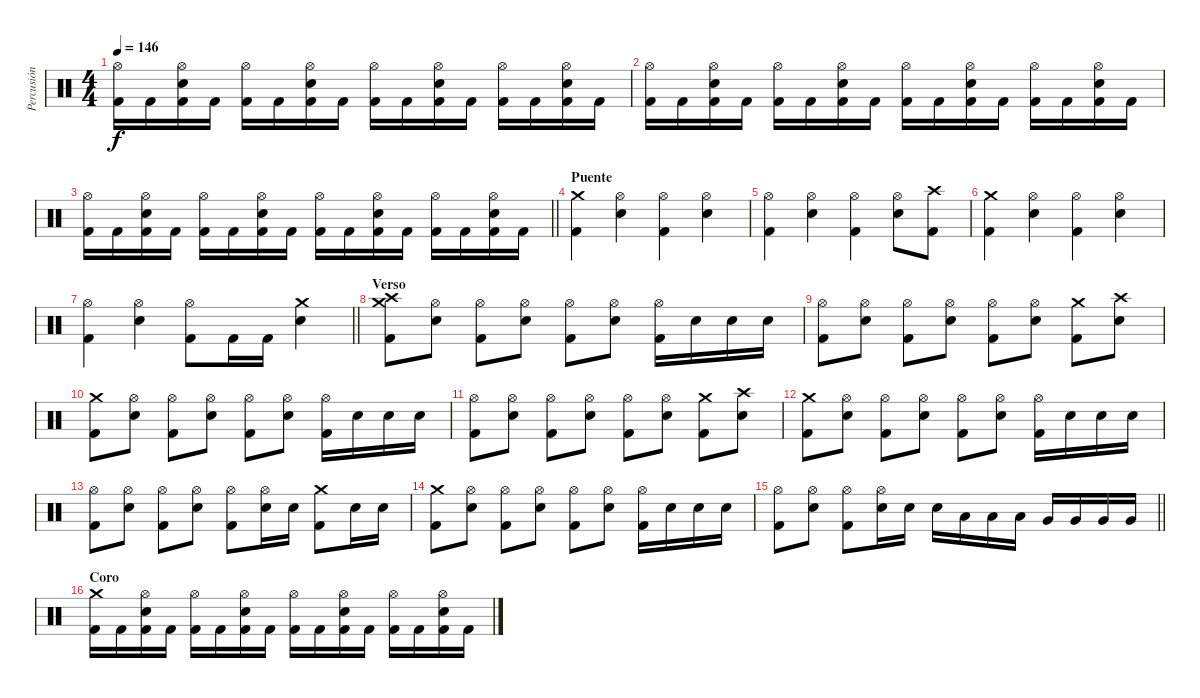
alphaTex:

\track ("Percusión" "Percusión") {instrument percussion}
\staff {score}
\articulation defaults
\ts (4 4)
\tempo 146
\clef neutral
\ks c
("Hi-Hat (open)" "Kick (hit) 2").16{dy f} "Kick (hit) 2".16 ("Hi-Hat (open)" "Snare (hit) 2" "Kick (hit) 2").16 "Kick (hit) 2".16 ("Hi-Hat (open)" "Kick (hit) 2").16 "Kick (hit) 2".16 ("Hi-Hat (open)" "Snare (hit) 2" "Kick (hit) 2").16 "Kick (hit) 2".16 ("Hi-Hat (open)" "Kick (hit) 2").16 "Kick (hit) 2".16 ("Hi-Hat (open)" "Snare (hit) 2" "Kick (hit) 2").16 "Kick (hit) 2".16 ("Hi-Hat (open)" "Kick (hit) 2").16 "Kick (hit) 2".16 ("Hi-Hat (open)" "Snare (hit) 2" "Kick (hit) 2").16 "Kick (hit) 2".16 |
("Hi-Hat (open)" "Kick (hit) 2").16 "Kick (hit) 2".16 ("Hi-Hat (open)" "Snare (hit) 2" "Kick (hit) 2").16 "Kick (hit) 2".16 ("Hi-Hat (open)" "Kick (hit) 2").16 "Kick (hit) 2".16 ("Hi-Hat (open)" "Snare (hit) 2" "Kick (hit) 2").16 "Kick (hit) 2".16 ("Hi-Hat (open)" "Kick (hit) 2").16 "Kick (hit) 2".16 ("Hi-Hat (open)" "Snare (hit) 2" "Kick (hit) 2").16 "Kick (hit) 2".16 ("Hi-Hat (open)" "Kick (hit) 2").16 "Kick (hit) 2".16 ("Hi-Hat (open)" "Snare (hit) 2" "Kick (hit) 2").16 "Kick (hit) 2".16 |
\barLineRight lightlight
("Hi-Hat (open)" "Kick (hit) 2").16 "Kick (hit) 2".16 ("Hi-Hat (open)" "Snare (hit) 2" "Kick (hit) 2").16 "Kick (hit) 2".16 ("Hi-Hat (open)" "Kick (hit) 2").16 "Kick (hit) 2".16 ("Hi-Hat (open)" "Snare (hit) 2" "Kick (hit) 2").16 "Kick (hit) 2".16 ("Hi-Hat (open)" "Kick (hit) 2").16 "Kick (hit) 2".16 ("Hi-Hat (open)" "Snare (hit) 2" "Kick (hit) 2").16 "Kick (hit) 2".16 ("Hi-Hat (open)" "Kick (hit) 2").16 "Kick (hit) 2".16 ("Hi-Hat (open)" "Snare (hit) 2" "Kick (hit) 2").16 "Kick (hit) 2".16 |
\section ("" "Puente")
("Crash medium (hit)" "Kick (hit) 2").4 ("Hi-Hat (open)" "Snare (hit) 2").4 ("Hi-Hat (open)" "Kick (hit) 2").4 ("Hi-Hat (open)" "Snare (hit) 2").4 |
("Hi-Hat (open)" "Kick (hit) 2").4 ("Hi-Hat (open)" "Snare (hit) 2").4 ("Hi-Hat (open)" "Kick (hit) 2").4 ("Hi-Hat (open)" "Snare (hit) 2").8 ("Crash high (hit)" "Kick (hit) 2").8 |
("Crash medium (hit)" "Kick (hit) 2").4 ("Hi-Hat (open)" "Snare (hit) 2").4 ("Hi-Hat (open)" "Kick (hit) 2").4 ("Hi-Hat (open)" "Snare (hit) 2").4 |
\barLineRight lightlight
("Hi-Hat (open)" "Kick (hit) 2").4 ("Hi-Hat (open)" "Snare (hit) 2").4 ("Hi-Hat (open)" "Kick (hit) 2").8 "Kick (hit) 2".16 "Kick (hit) 2".16 ("Crash medium (hit)" "Snare (hit) 2").4 |
\section ("" "Verso")
("Crash high (hit)" "Crash medium (hit)" "Kick (hit) 2").8 ("Hi-Hat (open)" "Snare (hit) 2").8 ("Hi-Hat (open)" "Kick (hit) 2").8 ("Hi-Hat (open)" "Snare (hit) 2").8 ("Hi-Hat (open)" "Kick (hit) 2").8 ("Hi-Hat (open)" "Snare (hit) 2").8 ("Hi-Hat (open)" "Kick (hit) 2").16 "Snare (hit) 2".16 "Snare (hit) 2".16 "Snare (hit) 2".16 |
("Hi-Hat (open)" "Kick (hit) 2").8 ("Hi-Hat (open)" "Snare (hit) 2").8 ("Hi-Hat (open)" "Kick (hit) 2").8 ("Hi-Hat (open)" "Snare (hit) 2").8 ("Hi-Hat (open)" "Kick (hit) 2").8 ("Hi-Hat (open)" "Snare (hit) 2").8 ("Crash medium (hit)" "Kick (hit) 2").8 ("Crash high (hit)" "Snare (hit) 2").8 |
("Crash medium (hit)" "Kick (hit) 2").8 ("Hi-Hat (open)" "Snare (hit) 2").8 ("Hi-Hat (open)" "Kick (hit) 2").8 ("Hi-Hat (open)" "Snare (hit) 2").8 ("Hi-Hat (open)" "Kick (hit) 2").8 ("Hi-Hat (open)" "Snare (hit) 2").8 ("Hi-Hat (open)" "Kick (hit) 2").16 "Snare (hit) 2".16 "Snare (hit) 2".16 "Snare (hit) 2".16 |
("Hi-Hat (open)" "Kick (hit) 2").8 ("Hi-Hat (open)" "Snare (hit) 2").8 ("Hi-Hat (open)" "Kick (hit) 2").8 ("Hi-Hat (open)" "Snare (hit) 2").8 ("Hi-Hat (open)" "Kick (hit) 2").8 ("Hi-Hat (open)" "Snare (hit) 2").8 ("Crash medium (hit)" "Kick (hit) 2").8 ("Crash high (hit)" "Snare (hit) 2").8 |
("Crash medium (hit)" "Kick (hit) 2").8 ("Hi-Hat (open)" "Snare (hit) 2").8 ("Hi-Hat (open)" "Kick (hit) 2").8 ("Hi-Hat (open)" "Snare (hit) 2").8 ("Hi-Hat (open)" "Kick (hit) 2").8 ("Hi-Hat (open)" "Snare (hit) 2").8 ("Hi-Hat (open)" "Kick (hit) 2").16 "Snare (hit) 2".16 "Snare (hit) 2".16 "Snare (hit) 2".16 |
("Hi-Hat (open)" "Kick (hit) 2").8 ("Hi-Hat (open)" "Snare (hit) 2").8 ("Hi-Hat (open)" "Kick (hit) 2").8 ("Hi-Hat (open)" "Snare (hit) 2").8 ("Hi-Hat (open)" "Kick (hit) 2").8 ("Hi-Hat (open)" "Snare (hit) 2").16 "Snare (hit) 2".16 ("Crash medium (hit)" "Kick (hit) 2").8 "Snare (hit) 2".16 "Snare (hit) 2".16 |
("Crash medium (hit)" "Kick (hit) 2").8 ("Hi-Hat (open)" "Snare (hit) 2").8 ("Hi-Hat (open)" "Kick (hit) 2").8 ("Hi-Hat (open)" "Snare (hit) 2").8 ("Hi-Hat (open)" "Kick (hit) 2").8 ("Hi-Hat (open)" "Snare (hit) 2").8 ("Hi-Hat (open)" "Kick (hit) 2").16 "Snare (hit) 2".16 "Snare (hit) 2".16 "Snare (hit) 2".16 |
\barLineRight lightlight
("Hi-Hat (open)" "Kick (hit) 2").8 ("Hi-Hat (open)" "Snare (hit) 2").8 ("Hi-Hat (open)" "Kick (hit) 2").8 ("Hi-Hat (open)" "Snare (hit) 2").16 "Snare (hit) 2".16 "Snare (hit) 2".16 "Low Tom (hit)".16 "Low Tom (hit)".16 "Low Tom (hit)".16 "Very Low Tom (hit)".16 "Very Low Tom (hit)".16 "Very Low Tom (hit)".16 "Very Low Tom (hit)".16 |
\section ("" "Coro")
("Crash medium (hit)" "Kick (hit) 2").16 "Kick (hit) 2".16 ("Hi-Hat (open)" "Snare (hit) 2" "Kick (hit) 2").16 "Kick (hit) 2".16 ("Hi-Hat (open)" "Kick (hit) 2").16 "Kick (hit) 2".16 ("Hi-Hat (open)" "Snare (hit) 2" "Kick (hit) 2").16 "Kick (hit) 2".16 ("Hi-Hat (open)" "Kick (hit) 2").16 "Kick (hit) 2".16 ("Hi-Hat (open)" "Snare (hit) 2" "Kick (hit) 2").16 "Kick (hit) 2".16 ("Hi-Hat (open)" "Kick (hit) 2").16 "Kick (hit) 2".16 ("Hi-Hat (open)" "Snare (hit) 2" "Kick (hit) 2").16 "Kick (hit) 2".16
